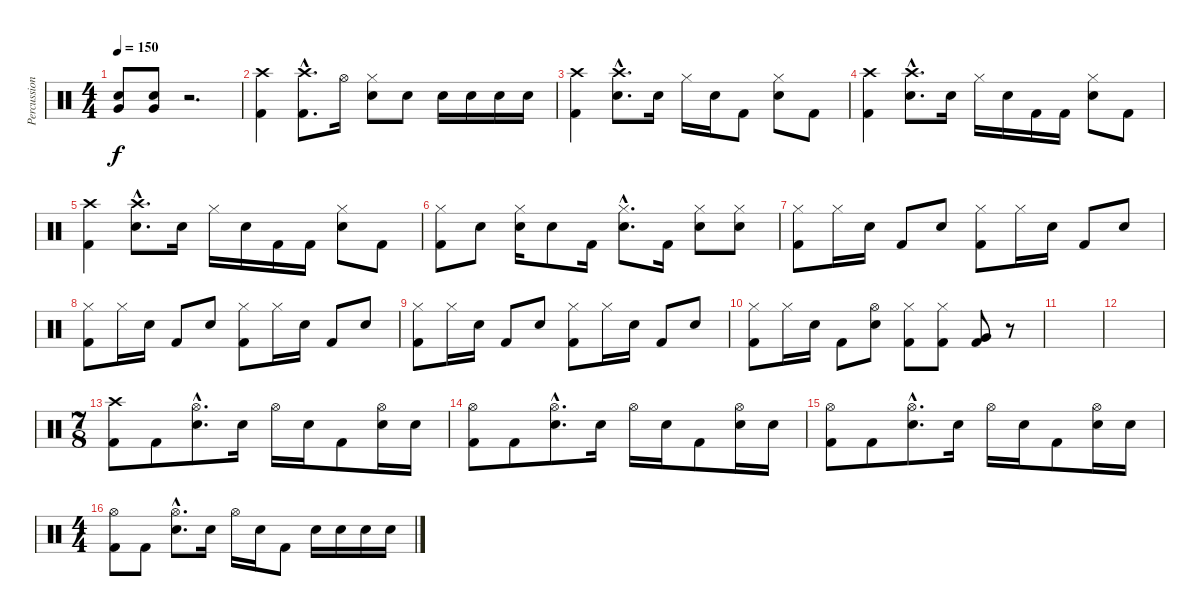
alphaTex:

\track ("Percussion" "Percussion") {instrument percussion}
\staff {score}
\articulation defaults
\ts (4 4)
\tempo 150
\clef neutral
\ks c
("Very Low Tom (hit)" "Electric Snare (hit)").8{dy f} ("Very Low Tom (hit)" "Electric Snare (hit)").8 r.2{d} |
("Crash high (hit)" "Kick (hit) 2").4 ("Crash high (hit)"{hac} "Kick (hit) 2"{hac}).8{d} "Hi-Hat (open)".16 ("Hi-Hat (closed)" "Electric Snare (hit)").8 "Electric Snare (hit)".8 "Electric Snare (hit)".16 "Electric Snare (hit)".16 "Electric Snare (hit)".16 "Electric Snare (hit)".16 |
("Crash high (hit)" "Kick (hit) 2").4 ("Crash high (hit)"{hac} "Electric Snare (hit)"{hac}).8{d} "Electric Snare (hit)".16 "Hi-Hat (closed)".16 "Electric Snare (hit)".16 "Kick (hit) 2".8 ("Hi-Hat (closed)" "Electric Snare (hit)").8 "Kick (hit) 2".8 |
("Crash high (hit)" "Kick (hit) 2").4 ("Crash high (hit)"{hac} "Electric Snare (hit)"{hac}).8{d} "Electric Snare (hit)".16 "Hi-Hat (closed)".16 "Electric Snare (hit)".16 "Kick (hit) 2".16 "Kick (hit) 2".16 ("Hi-Hat (closed)" "Electric Snare (hit)").8 "Kick (hit) 2".8 |
("Crash high (hit)" "Kick (hit) 2").4 ("Crash high (hit)"{hac} "Electric Snare (hit)"{hac}).8{d} "Electric Snare (hit)".16 "Hi-Hat (closed)".16 "Electric Snare (hit)".16 "Kick (hit) 2".16 "Kick (hit) 2".16 ("Hi-Hat (closed)" "Electric Snare (hit)").8 "Kick (hit) 2".8 |
("Hi-Hat (closed)" "Kick (hit) 2").8 "Electric Snare (hit)".8 ("Hi-Hat (closed)" "Electric Snare (hit)").16 "Electric Snare (hit)".8 "Kick (hit) 2".16 ("Hi-Hat (closed)"{hac} "Electric Snare (hit)"{hac}).8{d} "Kick (hit) 2".16 ("Hi-Hat (closed)" "Electric Snare (hit)").8 ("Hi-Hat (closed)" "Electric Snare (hit)").8 |
("Hi-Hat (closed)" "Kick (hit) 2").8 "Hi-Hat (closed)".16 "Electric Snare (hit)".16 "Kick (hit) 2".8 "Electric Snare (hit)".8 ("Hi-Hat (closed)" "Kick (hit) 2").8 "Hi-Hat (closed)".16 "Electric Snare (hit)".16 "Kick (hit) 2".8 "Electric Snare (hit)".8 |
("Hi-Hat (closed)" "Kick (hit) 2").8 "Hi-Hat (closed)".16 "Electric Snare (hit)".16 "Kick (hit) 2".8 "Electric Snare (hit)".8 ("Hi-Hat (closed)" "Kick (hit) 2").8 "Hi-Hat (closed)".16 "Electric Snare (hit)".16 "Kick (hit) 2".8 "Electric Snare (hit)".8 |
("Hi-Hat (closed)" "Kick (hit) 2").8 "Hi-Hat (closed)".16 "Electric Snare (hit)".16 "Kick (hit) 2".8 "Electric Snare (hit)".8 ("Hi-Hat (closed)" "Kick (hit) 2").8 "Hi-Hat (closed)".16 "Electric Snare (hit)".16 "Kick (hit) 2".8 "Electric Snare (hit)".8 |
("Hi-Hat (closed)" "Kick (hit) 2").8 "Hi-Hat (closed)".16 "Electric Snare (hit)".16 "Kick (hit) 2".8 ("Hi-Hat (open)" "Electric Snare (hit)").8 ("Hi-Hat (closed)" "Kick (hit) 2").8 ("Hi-Hat (closed)" "Kick (hit) 2").8 ("Very Low Tom (hit)" "Kick (hit) 2").8 r.8 |
|
|
\ts (7 8)
("Crash high (hit)" "Kick (hit) 2").8 "Kick (hit) 2".8 ("Hi-Hat (open)"{hac} "Electric Snare (hit)"{hac}).8{d} "Electric Snare (hit)".16 "Hi-Hat (open)".16 "Electric Snare (hit)".16 "Kick (hit) 2".8 ("Hi-Hat (open)" "Electric Snare (hit)").16 "Electric Snare (hit)".16 |
("Hi-Hat (open)" "Kick (hit) 2").8 "Kick (hit) 2".8 ("Hi-Hat (open)"{hac} "Electric Snare (hit)"{hac}).8{d} "Electric Snare (hit)".16 "Hi-Hat (open)".16 "Electric Snare (hit)".16 "Kick (hit) 2".8 ("Hi-Hat (open)" "Electric Snare (hit)").16 "Electric Snare (hit)".16 |
("Hi-Hat (open)" "Kick (hit) 2").8 "Kick (hit) 2".8 ("Hi-Hat (open)"{hac} "Electric Snare (hit)"{hac}).8{d} "Electric Snare (hit)".16 "Hi-Hat (open)".16 "Electric Snare (hit)".16 "Kick (hit) 2".8 ("Hi-Hat (open)" "Electric Snare (hit)").16 "Electric Snare (hit)".16 |
\ts (4 4)
("Hi-Hat (open)" "Kick (hit) 2").8 "Kick (hit) 2".8 ("Hi-Hat (open)"{hac} "Electric Snare (hit)"{hac}).8{d} "Electric Snare (hit)".16 "Hi-Hat (open)".16 "Electric Snare (hit)".16 "Kick (hit) 2".8 "Electric Snare (hit)".16 "Electric Snare (hit)".16 "Electric Snare (hit)".16 "Electric Snare (hit)".16
